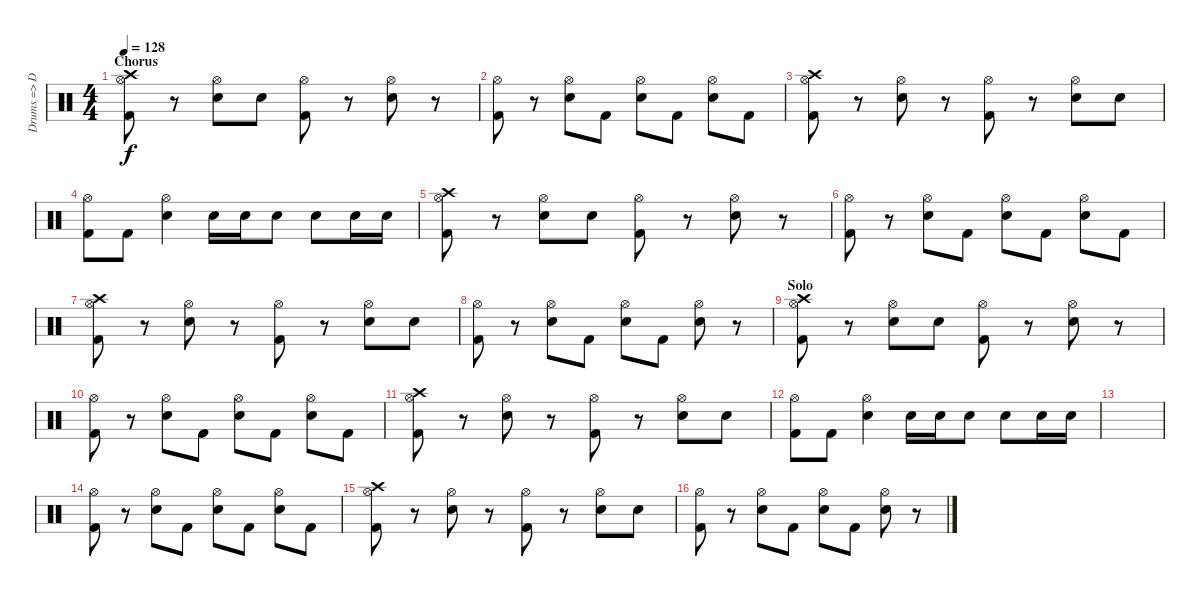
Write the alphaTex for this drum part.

\track ("Drums => Dave" "Drums => D") {instrument percussion}
\staff {score}
\articulation defaults
\ts (4 4)
\section ("" "Chorus")
\tempo 128
\clef neutral
\ks c
("Hi-Hat (open)" "Crash high (hit)" "Kick (hit) 2").8{dy f} r.8 ("Hi-Hat (open)" "Snare (hit) 2").8 "Snare (hit) 2".8 ("Hi-Hat (open)" "Kick (hit) 2").8 r.8 ("Hi-Hat (open)" "Snare (hit) 2").8 r.8 |
("Hi-Hat (open)" "Kick (hit) 2").8 r.8 ("Hi-Hat (open)" "Snare (hit) 2").8 "Kick (hit) 2".8 ("Hi-Hat (open)" "Snare (hit) 2").8 "Kick (hit) 2".8 ("Hi-Hat (open)" "Snare (hit) 2").8 "Kick (hit) 2".8 |
("Hi-Hat (open)" "Crash high (hit)" "Kick (hit) 2").8 r.8 ("Hi-Hat (open)" "Snare (hit) 2").8 r.8 ("Hi-Hat (open)" "Kick (hit) 2").8 r.8 ("Hi-Hat (open)" "Snare (hit) 2").8 "Snare (hit) 2".8 |
("Hi-Hat (open)" "Kick (hit) 2").8 "Kick (hit) 2".8 ("Hi-Hat (open)" "Snare (hit) 2").4 "Snare (hit) 2".16 "Snare (hit) 2".16 "Snare (hit) 2".8 "Snare (hit) 2".8 "Snare (hit) 2".16 "Snare (hit) 2".16 |
("Hi-Hat (open)" "Crash high (hit)" "Kick (hit) 2").8 r.8 ("Hi-Hat (open)" "Snare (hit) 2").8 "Snare (hit) 2".8 ("Hi-Hat (open)" "Kick (hit) 2").8 r.8 ("Hi-Hat (open)" "Snare (hit) 2").8 r.8 |
("Hi-Hat (open)" "Kick (hit) 2").8 r.8 ("Hi-Hat (open)" "Snare (hit) 2").8 "Kick (hit) 2".8 ("Hi-Hat (open)" "Snare (hit) 2").8 "Kick (hit) 2".8 ("Hi-Hat (open)" "Snare (hit) 2").8 "Kick (hit) 2".8 |
("Hi-Hat (open)" "Crash high (hit)" "Kick (hit) 2").8 r.8 ("Hi-Hat (open)" "Snare (hit) 2").8 r.8 ("Hi-Hat (open)" "Kick (hit) 2").8 r.8 ("Hi-Hat (open)" "Snare (hit) 2").8 "Snare (hit) 2".8 |
("Hi-Hat (open)" "Kick (hit) 2").8 r.8 ("Hi-Hat (open)" "Snare (hit) 2").8 "Kick (hit) 2".8 ("Hi-Hat (open)" "Snare (hit) 2").8 "Kick (hit) 2".8 ("Hi-Hat (open)" "Snare (hit) 2").8 r.8 |
\section ("" "Solo")
("Hi-Hat (open)" "Crash high (hit)" "Kick (hit) 2").8 r.8 ("Hi-Hat (open)" "Snare (hit) 2").8 "Snare (hit) 2".8 ("Hi-Hat (open)" "Kick (hit) 2").8 r.8 ("Hi-Hat (open)" "Snare (hit) 2").8 r.8 |
("Hi-Hat (open)" "Kick (hit) 2").8 r.8 ("Hi-Hat (open)" "Snare (hit) 2").8 "Kick (hit) 2".8 ("Hi-Hat (open)" "Snare (hit) 2").8 "Kick (hit) 2".8 ("Hi-Hat (open)" "Snare (hit) 2").8 "Kick (hit) 2".8 |
("Hi-Hat (open)" "Crash high (hit)" "Kick (hit) 2").8 r.8 ("Hi-Hat (open)" "Snare (hit) 2").8 r.8 ("Hi-Hat (open)" "Kick (hit) 2").8 r.8 ("Hi-Hat (open)" "Snare (hit) 2").8 "Snare (hit) 2".8 |
("Hi-Hat (open)" "Kick (hit) 2").8 "Kick (hit) 2".8 ("Hi-Hat (open)" "Snare (hit) 2").4 "Snare (hit) 2".16 "Snare (hit) 2".16 "Snare (hit) 2".8 "Snare (hit) 2".8 "Snare (hit) 2".16 "Snare (hit) 2".16 |
|
("Hi-Hat (open)" "Kick (hit) 2").8 r.8 ("Hi-Hat (open)" "Snare (hit) 2").8 "Kick (hit) 2".8 ("Hi-Hat (open)" "Snare (hit) 2").8 "Kick (hit) 2".8 ("Hi-Hat (open)" "Snare (hit) 2").8 "Kick (hit) 2".8 |
("Hi-Hat (open)" "Crash high (hit)" "Kick (hit) 2").8 r.8 ("Hi-Hat (open)" "Snare (hit) 2").8 r.8 ("Hi-Hat (open)" "Kick (hit) 2").8 r.8 ("Hi-Hat (open)" "Snare (hit) 2").8 "Snare (hit) 2".8 |
("Hi-Hat (open)" "Kick (hit) 2").8 r.8 ("Hi-Hat (open)" "Snare (hit) 2").8 "Kick (hit) 2".8 ("Hi-Hat (open)" "Snare (hit) 2").8 "Kick (hit) 2".8 ("Hi-Hat (open)" "Snare (hit) 2").8 r.8
